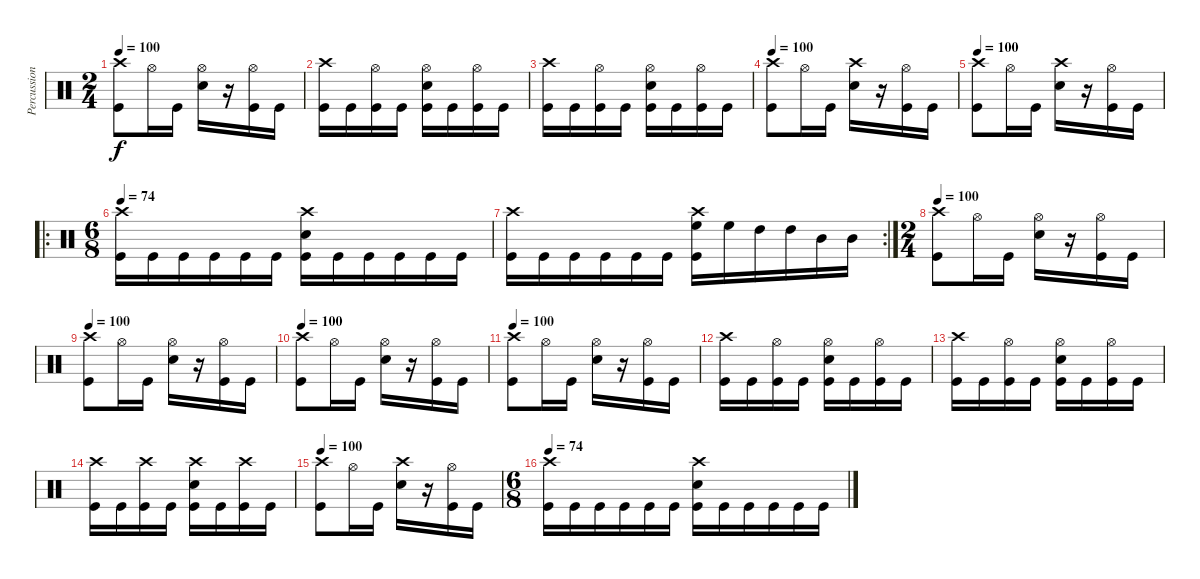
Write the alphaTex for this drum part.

\track ("Percussioni" "Percussion") {instrument percussion}
\staff {score}
\articulation defaults
\ts (2 4)
\tempo 100
\clef neutral
\ks c
("Crash high (hit)" "Kick (hit)").8{dy f} "Hi-Hat (open)".16 "Kick (hit)".16 ("Hi-Hat (open)" "Snare (hit) 2").16 r.16 ("Hi-Hat (open)" "Kick (hit)").16 "Kick (hit)".16 |
("Crash high (hit)" "Kick (hit)").16 "Kick (hit)".16 ("Hi-Hat (open)" "Kick (hit)").16 "Kick (hit)".16 ("Hi-Hat (open)" "Snare (hit) 2" "Kick (hit)").16 "Kick (hit)".16 ("Hi-Hat (open)" "Kick (hit)").16 "Kick (hit)".16 |
("Crash high (hit)" "Kick (hit)").16 "Kick (hit)".16 ("Hi-Hat (open)" "Kick (hit)").16 "Kick (hit)".16 ("Hi-Hat (open)" "Snare (hit) 2" "Kick (hit)").16 "Kick (hit)".16 ("Hi-Hat (open)" "Kick (hit)").16 "Kick (hit)".16 |
\tempo 100
("Crash high (hit)" "Kick (hit)").8 "Hi-Hat (open)".16 "Kick (hit)".16 ("Crash high (hit)" "Snare (hit) 2").16 r.16 ("Hi-Hat (open)" "Kick (hit)").16 "Kick (hit)".16 |
\tempo 100
("Crash high (hit)" "Kick (hit)").8 "Hi-Hat (open)".16 "Kick (hit)".16 ("Crash high (hit)" "Snare (hit) 2").16 r.16 ("Hi-Hat (open)" "Kick (hit)").16 "Kick (hit)".16 |
\ro
\ts (6 8)
\tempo 74
("Crash high (hit)" "Kick (hit)").16 "Kick (hit)".16 "Kick (hit)".16 "Kick (hit)".16 "Kick (hit)".16 "Kick (hit)".16 ("Crash high (hit)" "Snare (hit) 2" "Kick (hit)").16 "Kick (hit)".16 "Kick (hit)".16 "Kick (hit)".16 "Kick (hit)".16 "Kick (hit)".16 |
\rc 2
("Crash high (hit)" "Kick (hit)").16 "Kick (hit)".16 "Kick (hit)".16 "Kick (hit)".16 "Kick (hit)".16 "Kick (hit)".16 ("Crash high (hit)" "Kick (hit)" "High Floor Tom (hit)").16 "High Floor Tom (hit)".16 "High Tom (hit)".16 "High Tom (hit)".16 "Mid Tom (hit)".16 "Mid Tom (hit)".16 |
\ts (2 4)
\tempo 100
("Crash high (hit)" "Kick (hit)").8 "Hi-Hat (open)".16 "Kick (hit)".16 ("Hi-Hat (open)" "Snare (hit) 2").16 r.16 ("Hi-Hat (open)" "Kick (hit)").16 "Kick (hit)".16 |
\tempo 100
("Crash high (hit)" "Kick (hit)").8 "Hi-Hat (open)".16 "Kick (hit)".16 ("Hi-Hat (open)" "Snare (hit) 2").16 r.16 ("Hi-Hat (open)" "Kick (hit)").16 "Kick (hit)".16 |
\tempo 100
("Crash high (hit)" "Kick (hit)").8 "Hi-Hat (open)".16 "Kick (hit)".16 ("Hi-Hat (open)" "Snare (hit) 2").16 r.16 ("Hi-Hat (open)" "Kick (hit)").16 "Kick (hit)".16 |
\tempo 100
("Crash high (hit)" "Kick (hit)").8 "Hi-Hat (open)".16 "Kick (hit)".16 ("Hi-Hat (open)" "Snare (hit) 2").16 r.16 ("Hi-Hat (open)" "Kick (hit)").16 "Kick (hit)".16 |
("Crash high (hit)" "Kick (hit)").16 "Kick (hit)".16 ("Hi-Hat (open)" "Kick (hit)").16 "Kick (hit)".16 ("Hi-Hat (open)" "Snare (hit) 2" "Kick (hit)").16 "Kick (hit)".16 ("Hi-Hat (open)" "Kick (hit)").16 "Kick (hit)".16 |
("Crash high (hit)" "Kick (hit)").16 "Kick (hit)".16 ("Hi-Hat (open)" "Kick (hit)").16 "Kick (hit)".16 ("Hi-Hat (open)" "Snare (hit) 2" "Kick (hit)").16 "Kick (hit)".16 ("Hi-Hat (open)" "Kick (hit)").16 "Kick (hit)".16 |
("Crash high (hit)" "Kick (hit)").16 "Kick (hit)".16 ("Crash high (hit)" "Kick (hit)").16 "Kick (hit)".16 ("Crash high (hit)" "Snare (hit) 2" "Kick (hit)").16 "Kick (hit)".16 ("Crash high (hit)" "Kick (hit)").16 "Kick (hit)".16 |
\tempo 100
("Crash high (hit)" "Kick (hit)").8 "Hi-Hat (open)".16 "Kick (hit)".16 ("Crash high (hit)" "Snare (hit) 2").16 r.16 ("Hi-Hat (open)" "Kick (hit)").16 "Kick (hit)".16 |
\ts (6 8)
\tempo 74
("Crash high (hit)" "Kick (hit)").16 "Kick (hit)".16 "Kick (hit)".16 "Kick (hit)".16 "Kick (hit)".16 "Kick (hit)".16 ("Crash high (hit)" "Snare (hit) 2" "Kick (hit)").16 "Kick (hit)".16 "Kick (hit)".16 "Kick (hit)".16 "Kick (hit)".16 "Kick (hit)".16
